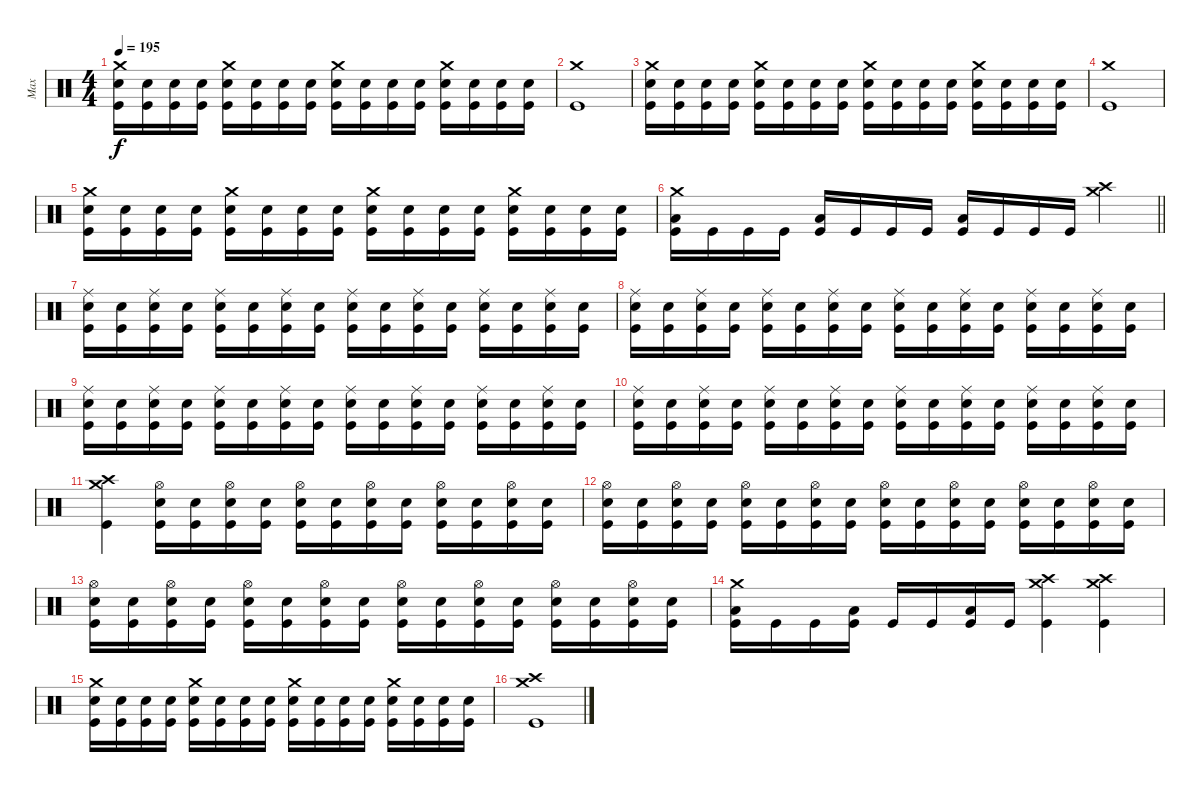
\track ("Max" "Max") {instrument percussion}
\staff {score}
\articulation defaults
\ts (4 4)
\tempo 195
\clef neutral
\ks c
("Crash medium (hit)" "Electric Snare (hit)" "Kick (hit)").16{dy f} ("Electric Snare (hit)" "Kick (hit)").16 ("Electric Snare (hit)" "Kick (hit)").16 ("Electric Snare (hit)" "Kick (hit)").16 ("Crash medium (hit)" "Electric Snare (hit)" "Kick (hit)").16 ("Electric Snare (hit)" "Kick (hit)").16 ("Electric Snare (hit)" "Kick (hit)").16 ("Electric Snare (hit)" "Kick (hit)").16 ("Crash medium (hit)" "Electric Snare (hit)" "Kick (hit)").16 ("Electric Snare (hit)" "Kick (hit)").16 ("Electric Snare (hit)" "Kick (hit)").16 ("Electric Snare (hit)" "Kick (hit)").16 ("Crash medium (hit)" "Electric Snare (hit)" "Kick (hit)").16 ("Electric Snare (hit)" "Kick (hit)").16 ("Electric Snare (hit)" "Kick (hit)").16 ("Electric Snare (hit)" "Kick (hit)").16 |
("Crash medium (hit)" "Kick (hit)").1 |
("Crash medium (hit)" "Electric Snare (hit)" "Kick (hit)").16 ("Electric Snare (hit)" "Kick (hit)").16 ("Electric Snare (hit)" "Kick (hit)").16 ("Electric Snare (hit)" "Kick (hit)").16 ("Crash medium (hit)" "Electric Snare (hit)" "Kick (hit)").16 ("Electric Snare (hit)" "Kick (hit)").16 ("Electric Snare (hit)" "Kick (hit)").16 ("Electric Snare (hit)" "Kick (hit)").16 ("Crash medium (hit)" "Electric Snare (hit)" "Kick (hit)").16 ("Electric Snare (hit)" "Kick (hit)").16 ("Electric Snare (hit)" "Kick (hit)").16 ("Electric Snare (hit)" "Kick (hit)").16 ("Crash medium (hit)" "Electric Snare (hit)" "Kick (hit)").16 ("Electric Snare (hit)" "Kick (hit)").16 ("Electric Snare (hit)" "Kick (hit)").16 ("Electric Snare (hit)" "Kick (hit)").16 |
("Crash medium (hit)" "Kick (hit)").1 |
("Crash medium (hit)" "Electric Snare (hit)" "Kick (hit)").16 ("Electric Snare (hit)" "Kick (hit)").16 ("Electric Snare (hit)" "Kick (hit)").16 ("Electric Snare (hit)" "Kick (hit)").16 ("Crash medium (hit)" "Electric Snare (hit)" "Kick (hit)").16 ("Electric Snare (hit)" "Kick (hit)").16 ("Electric Snare (hit)" "Kick (hit)").16 ("Electric Snare (hit)" "Kick (hit)").16 ("Crash medium (hit)" "Electric Snare (hit)" "Kick (hit)").16 ("Electric Snare (hit)" "Kick (hit)").16 ("Electric Snare (hit)" "Kick (hit)").16 ("Electric Snare (hit)" "Kick (hit)").16 ("Crash medium (hit)" "Electric Snare (hit)" "Kick (hit)").16 ("Electric Snare (hit)" "Kick (hit)").16 ("Electric Snare (hit)" "Kick (hit)").16 ("Electric Snare (hit)" "Kick (hit)").16 |
\barLineRight lightlight
("Crash medium (hit)" "Low Tom (hit)" "Kick (hit)").16 "Kick (hit)".16 "Kick (hit)".16 "Kick (hit)".16 ("Low Tom (hit)" "Kick (hit)").16 "Kick (hit)".16 "Kick (hit)".16 "Kick (hit)".16 ("Low Tom (hit)" "Kick (hit)").16 "Kick (hit)".16 "Kick (hit)".16 "Kick (hit)".16 ("Crash medium (hit)" "Crash high (hit)").4 |
("Ride (middle)" "Electric Snare (hit)" "Kick (hit)").16 ("Electric Snare (hit)" "Kick (hit)").16 ("Ride (middle)" "Electric Snare (hit)" "Kick (hit)").16 ("Electric Snare (hit)" "Kick (hit)").16 ("Ride (middle)" "Electric Snare (hit)" "Kick (hit)").16 ("Electric Snare (hit)" "Kick (hit)").16 ("Ride (middle)" "Electric Snare (hit)" "Kick (hit)").16 ("Electric Snare (hit)" "Kick (hit)").16 ("Ride (middle)" "Electric Snare (hit)" "Kick (hit)").16 ("Electric Snare (hit)" "Kick (hit)").16 ("Ride (middle)" "Electric Snare (hit)" "Kick (hit)").16 ("Electric Snare (hit)" "Kick (hit)").16 ("Ride (middle)" "Electric Snare (hit)" "Kick (hit)").16 ("Electric Snare (hit)" "Kick (hit)").16 ("Ride (middle)" "Electric Snare (hit)" "Kick (hit)").16 ("Electric Snare (hit)" "Kick (hit)").16 |
("Ride (middle)" "Electric Snare (hit)" "Kick (hit)").16 ("Electric Snare (hit)" "Kick (hit)").16 ("Ride (middle)" "Electric Snare (hit)" "Kick (hit)").16 ("Electric Snare (hit)" "Kick (hit)").16 ("Ride (middle)" "Electric Snare (hit)" "Kick (hit)").16 ("Electric Snare (hit)" "Kick (hit)").16 ("Ride (middle)" "Electric Snare (hit)" "Kick (hit)").16 ("Electric Snare (hit)" "Kick (hit)").16 ("Ride (middle)" "Electric Snare (hit)" "Kick (hit)").16 ("Electric Snare (hit)" "Kick (hit)").16 ("Ride (middle)" "Electric Snare (hit)" "Kick (hit)").16 ("Electric Snare (hit)" "Kick (hit)").16 ("Ride (middle)" "Electric Snare (hit)" "Kick (hit)").16 ("Electric Snare (hit)" "Kick (hit)").16 ("Ride (middle)" "Electric Snare (hit)" "Kick (hit)").16 ("Electric Snare (hit)" "Kick (hit)").16 |
("Ride (middle)" "Electric Snare (hit)" "Kick (hit)").16 ("Electric Snare (hit)" "Kick (hit)").16 ("Ride (middle)" "Electric Snare (hit)" "Kick (hit)").16 ("Electric Snare (hit)" "Kick (hit)").16 ("Ride (middle)" "Electric Snare (hit)" "Kick (hit)").16 ("Electric Snare (hit)" "Kick (hit)").16 ("Ride (middle)" "Electric Snare (hit)" "Kick (hit)").16 ("Electric Snare (hit)" "Kick (hit)").16 ("Ride (middle)" "Electric Snare (hit)" "Kick (hit)").16 ("Electric Snare (hit)" "Kick (hit)").16 ("Ride (middle)" "Electric Snare (hit)" "Kick (hit)").16 ("Electric Snare (hit)" "Kick (hit)").16 ("Ride (middle)" "Electric Snare (hit)" "Kick (hit)").16 ("Electric Snare (hit)" "Kick (hit)").16 ("Ride (middle)" "Electric Snare (hit)" "Kick (hit)").16 ("Electric Snare (hit)" "Kick (hit)").16 |
("Ride (middle)" "Electric Snare (hit)" "Kick (hit)").16 ("Electric Snare (hit)" "Kick (hit)").16 ("Ride (middle)" "Electric Snare (hit)" "Kick (hit)").16 ("Electric Snare (hit)" "Kick (hit)").16 ("Ride (middle)" "Electric Snare (hit)" "Kick (hit)").16 ("Electric Snare (hit)" "Kick (hit)").16 ("Ride (middle)" "Electric Snare (hit)" "Kick (hit)").16 ("Electric Snare (hit)" "Kick (hit)").16 ("Ride (middle)" "Electric Snare (hit)" "Kick (hit)").16 ("Electric Snare (hit)" "Kick (hit)").16 ("Ride (middle)" "Electric Snare (hit)" "Kick (hit)").16 ("Electric Snare (hit)" "Kick (hit)").16 ("Ride (middle)" "Electric Snare (hit)" "Kick (hit)").16 ("Electric Snare (hit)" "Kick (hit)").16 ("Ride (middle)" "Electric Snare (hit)" "Kick (hit)").16 ("Electric Snare (hit)" "Kick (hit)").16 |
("Crash medium (hit)" "Crash high (hit)" "Kick (hit)").4 ("Hi-Hat (open)" "Electric Snare (hit)" "Kick (hit)").16 ("Electric Snare (hit)" "Kick (hit)").16 ("Hi-Hat (open)" "Electric Snare (hit)" "Kick (hit)").16 ("Electric Snare (hit)" "Kick (hit)").16 ("Hi-Hat (open)" "Electric Snare (hit)" "Kick (hit)").16 ("Electric Snare (hit)" "Kick (hit)").16 ("Hi-Hat (open)" "Electric Snare (hit)" "Kick (hit)").16 ("Electric Snare (hit)" "Kick (hit)").16 ("Hi-Hat (open)" "Electric Snare (hit)" "Kick (hit)").16 ("Electric Snare (hit)" "Kick (hit)").16 ("Hi-Hat (open)" "Electric Snare (hit)" "Kick (hit)").16 ("Electric Snare (hit)" "Kick (hit)").16 |
("Hi-Hat (open)" "Electric Snare (hit)" "Kick (hit)").16 ("Electric Snare (hit)" "Kick (hit)").16 ("Hi-Hat (open)" "Electric Snare (hit)" "Kick (hit)").16 ("Electric Snare (hit)" "Kick (hit)").16 ("Hi-Hat (open)" "Electric Snare (hit)" "Kick (hit)").16 ("Electric Snare (hit)" "Kick (hit)").16 ("Hi-Hat (open)" "Electric Snare (hit)" "Kick (hit)").16 ("Electric Snare (hit)" "Kick (hit)").16 ("Hi-Hat (open)" "Electric Snare (hit)" "Kick (hit)").16 ("Electric Snare (hit)" "Kick (hit)").16 ("Hi-Hat (open)" "Electric Snare (hit)" "Kick (hit)").16 ("Electric Snare (hit)" "Kick (hit)").16 ("Hi-Hat (open)" "Electric Snare (hit)" "Kick (hit)").16 ("Electric Snare (hit)" "Kick (hit)").16 ("Hi-Hat (open)" "Electric Snare (hit)" "Kick (hit)").16 ("Electric Snare (hit)" "Kick (hit)").16 |
("Hi-Hat (open)" "Electric Snare (hit)" "Kick (hit)").16 ("Electric Snare (hit)" "Kick (hit)").16 ("Hi-Hat (open)" "Electric Snare (hit)" "Kick (hit)").16 ("Electric Snare (hit)" "Kick (hit)").16 ("Hi-Hat (open)" "Electric Snare (hit)" "Kick (hit)").16 ("Electric Snare (hit)" "Kick (hit)").16 ("Hi-Hat (open)" "Electric Snare (hit)" "Kick (hit)").16 ("Electric Snare (hit)" "Kick (hit)").16 ("Hi-Hat (open)" "Electric Snare (hit)" "Kick (hit)").16 ("Electric Snare (hit)" "Kick (hit)").16 ("Hi-Hat (open)" "Electric Snare (hit)" "Kick (hit)").16 ("Electric Snare (hit)" "Kick (hit)").16 ("Hi-Hat (open)" "Electric Snare (hit)" "Kick (hit)").16 ("Electric Snare (hit)" "Kick (hit)").16 ("Hi-Hat (open)" "Electric Snare (hit)" "Kick (hit)").16 ("Electric Snare (hit)" "Kick (hit)").16 |
("Crash medium (hit)" "Low Tom (hit)" "Kick (hit)").16 "Kick (hit)".16 "Kick (hit)".16 ("Low Tom (hit)" "Kick (hit)").16 "Kick (hit)".16 "Kick (hit)".16 ("Low Tom (hit)" "Kick (hit)").16 "Kick (hit)".16 ("Crash medium (hit)" "Crash high (hit)" "Kick (hit)").4 ("Crash medium (hit)" "Crash high (hit)" "Kick (hit)").4 |
("Crash medium (hit)" "Electric Snare (hit)" "Kick (hit)").16 ("Electric Snare (hit)" "Kick (hit)").16 ("Electric Snare (hit)" "Kick (hit)").16 ("Electric Snare (hit)" "Kick (hit)").16 ("Crash medium (hit)" "Electric Snare (hit)" "Kick (hit)").16 ("Electric Snare (hit)" "Kick (hit)").16 ("Electric Snare (hit)" "Kick (hit)").16 ("Electric Snare (hit)" "Kick (hit)").16 ("Crash medium (hit)" "Electric Snare (hit)" "Kick (hit)").16 ("Electric Snare (hit)" "Kick (hit)").16 ("Electric Snare (hit)" "Kick (hit)").16 ("Electric Snare (hit)" "Kick (hit)").16 ("Crash medium (hit)" "Electric Snare (hit)" "Kick (hit)").16 ("Electric Snare (hit)" "Kick (hit)").16 ("Electric Snare (hit)" "Kick (hit)").16 ("Electric Snare (hit)" "Kick (hit)").16 |
("Crash medium (hit)" "Crash high (hit)" "Kick (hit)").1
